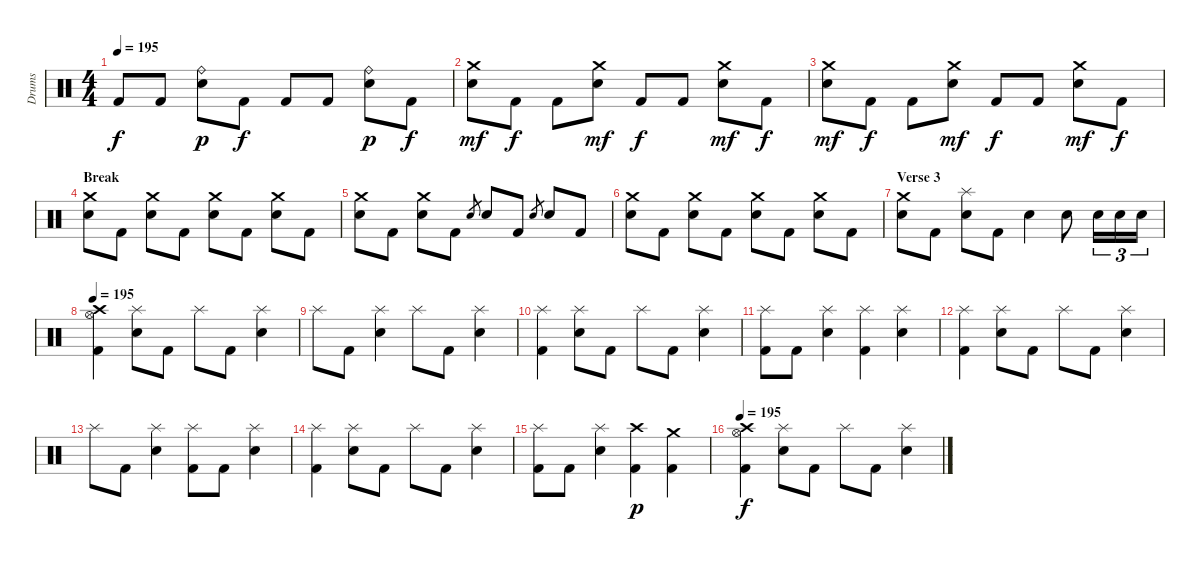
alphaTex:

\track ("Drums" "Drums") {instrument percussion}
\staff {score}
\articulation defaults
\ts (4 4)
\tempo 195
\clef neutral
\ks c "Kick (hit) 2".8{dy f} "Kick (hit) 2".8
("Ride (bell)" "Electric Snare (hit)").8{dy p} "Kick (hit) 2".8{dy f} "Kick (hit) 2".8 "Kick (hit) 2".8 ("Ride (bell)" "Electric Snare (hit)").8{dy p} "Kick (hit) 2".8{dy f} |
("Crash medium (hit)" "Electric Snare (hit)").8{dy mf} "Kick (hit) 2".8{dy f} "Kick (hit) 2".8 ("Crash medium (hit)" "Electric Snare (hit)").8{dy mf} "Kick (hit) 2".8{dy f} "Kick (hit) 2".8 ("Crash medium (hit)" "Electric Snare (hit)").8{dy mf} "Kick (hit) 2".8{dy f} |
("Crash medium (hit)" "Electric Snare (hit)").8{dy mf} "Kick (hit) 2".8{dy f} "Kick (hit) 2".8 ("Crash medium (hit)" "Electric Snare (hit)").8{dy mf} "Kick (hit) 2".8{dy f} "Kick (hit) 2".8 ("Crash medium (hit)" "Electric Snare (hit)").8{dy mf} "Kick (hit) 2".8{dy f} |
\section ("" "Break")
("Crash medium (hit)" "Electric Snare (hit)").8 "Kick (hit) 2".8 ("Crash medium (hit)" "Electric Snare (hit)").8 "Kick (hit) 2".8 ("Crash medium (hit)" "Electric Snare (hit)").8 "Kick (hit) 2".8 ("Crash medium (hit)" "Electric Snare (hit)").8 "Kick (hit) 2".8 |
("Crash medium (hit)" "Electric Snare (hit)").8 "Kick (hit) 2".8 ("Crash medium (hit)" "Electric Snare (hit)").8 "Kick (hit) 2".8 "Electric Snare (hit)".8{gr} "Electric Snare (hit)".8 "Kick (hit) 2".8 "Electric Snare (hit)".8{gr} "Electric Snare (hit)".8 "Kick (hit) 2".8 |
("Crash medium (hit)" "Electric Snare (hit)").8 "Kick (hit) 2".8 ("Crash medium (hit)" "Electric Snare (hit)").8 "Kick (hit) 2".8 ("Crash medium (hit)" "Electric Snare (hit)").8 "Kick (hit) 2".8 ("Crash medium (hit)" "Electric Snare (hit)").8 "Kick (hit) 2".8 |
\section ("" "Verse 3")
("Crash medium (hit)" "Electric Snare (hit)").8 "Kick (hit) 2".8 ("Splash (hit)" "Electric Snare (hit)").8 "Kick (hit) 2".8 "Electric Snare (hit)".4 "Electric Snare (hit)".8 "Electric Snare (hit)".16{tu (3 2)} "Electric Snare (hit)".16{tu (3 2)} "Electric Snare (hit)".16{tu (3 2)} |
\tempo 195
("Crash high (hit)" "Hi-Hat (open)" "Kick (hit) 2").4 ("Splash (hit)" "Electric Snare (hit)").8 "Kick (hit) 2".8 "Splash (hit)".8 "Kick (hit) 2".8 ("Splash (hit)" "Electric Snare (hit)").4 |
"Splash (hit)".8 "Kick (hit) 2".8 ("Splash (hit)" "Electric Snare (hit)").4 "Splash (hit)".8 "Kick (hit) 2".8 ("Splash (hit)" "Electric Snare (hit)").4 |
("Splash (hit)" "Kick (hit) 2").4 ("Splash (hit)" "Electric Snare (hit)").8 "Kick (hit) 2".8 "Splash (hit)".8 "Kick (hit) 2".8 ("Splash (hit)" "Electric Snare (hit)").4 |
("Splash (hit)" "Kick (hit) 2").8 "Kick (hit) 2".8 ("Splash (hit)" "Electric Snare (hit)").4 ("Splash (hit)" "Kick (hit) 2").4 ("Splash (hit)" "Electric Snare (hit)").4 |
("Splash (hit)" "Kick (hit) 2").4 ("Splash (hit)" "Electric Snare (hit)").8 "Kick (hit) 2".8 "Splash (hit)".8 "Kick (hit) 2".8 ("Splash (hit)" "Electric Snare (hit)").4 |
"Splash (hit)".8 "Kick (hit) 2".8 ("Splash (hit)" "Electric Snare (hit)").4 ("Splash (hit)" "Kick (hit) 2").8 "Kick (hit) 2".8 ("Splash (hit)" "Electric Snare (hit)").4 |
("Splash (hit)" "Kick (hit) 2").4 ("Splash (hit)" "Electric Snare (hit)").8 "Kick (hit) 2".8 "Splash (hit)".8 "Kick (hit) 2".8 ("Splash (hit)" "Electric Snare (hit)").4 |
("Splash (hit)" "Kick (hit) 2").8 "Kick (hit) 2".8 ("Splash (hit)" "Electric Snare (hit)").4 ("Crash high (hit)" "Kick (hit) 2").4{dy p} ("Crash medium (hit)" "Kick (hit) 2").4 |
\tempo 195
("Crash high (hit)" "Hi-Hat (open)" "Kick (hit) 2").4{dy f} ("Splash (hit)" "Electric Snare (hit)").8 "Kick (hit) 2".8 "Splash (hit)".8 "Kick (hit) 2".8 ("Splash (hit)" "Electric Snare (hit)").4
